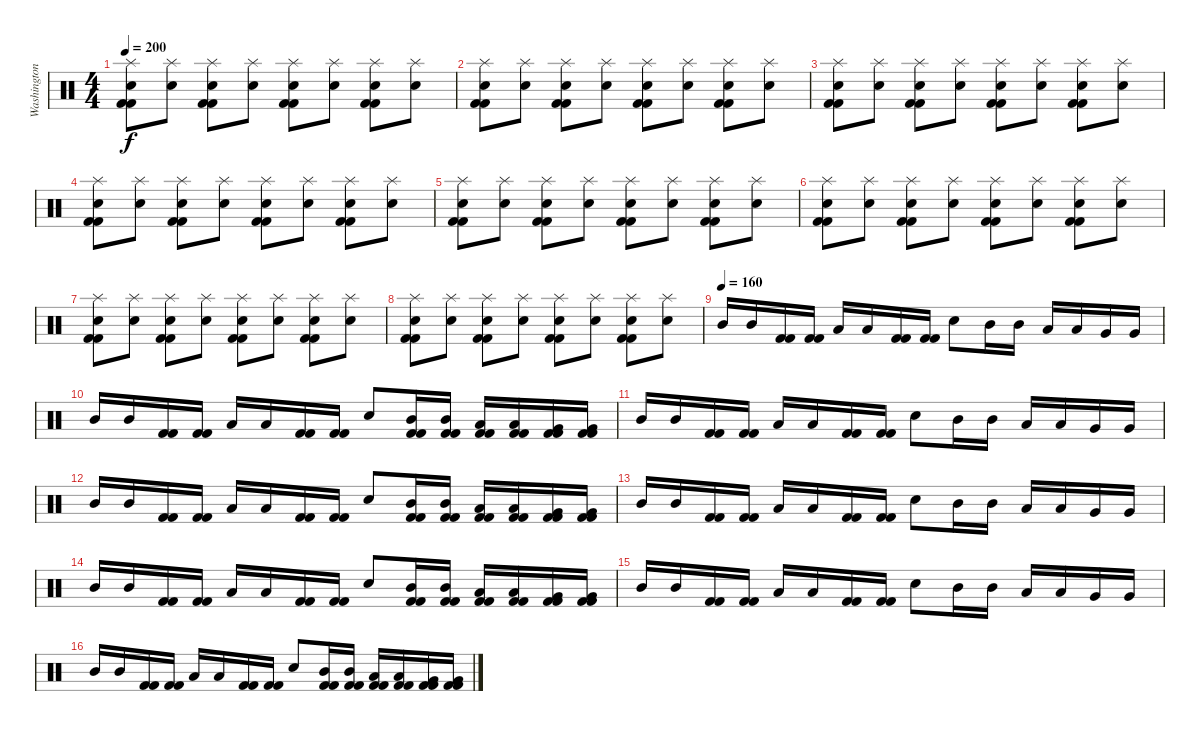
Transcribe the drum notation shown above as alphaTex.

\track ("Washington" "Washington") {instrument percussion}
\staff {score}
\articulation defaults
\ts (4 4)
\tempo 200
\clef neutral
\ks c
("Splash (hit)" "Electric Snare (hit)" "Kick (hit) 2" "Kick (hit) 2").8{dy f} ("Splash (hit)" "Electric Snare (hit)").8 ("Splash (hit)" "Electric Snare (hit)" "Kick (hit) 2" "Kick (hit) 2").8 ("Splash (hit)" "Electric Snare (hit)").8 ("Splash (hit)" "Electric Snare (hit)" "Kick (hit) 2" "Kick (hit) 2").8 ("Splash (hit)" "Electric Snare (hit)").8 ("Splash (hit)" "Electric Snare (hit)" "Kick (hit) 2" "Kick (hit) 2").8 ("Splash (hit)" "Electric Snare (hit)").8 |
("Splash (hit)" "Electric Snare (hit)" "Kick (hit) 2" "Kick (hit) 2").8 ("Splash (hit)" "Electric Snare (hit)").8 ("Splash (hit)" "Electric Snare (hit)" "Kick (hit) 2" "Kick (hit) 2").8 ("Splash (hit)" "Electric Snare (hit)").8 ("Splash (hit)" "Electric Snare (hit)" "Kick (hit) 2" "Kick (hit) 2").8 ("Splash (hit)" "Electric Snare (hit)").8 ("Splash (hit)" "Electric Snare (hit)" "Kick (hit) 2" "Kick (hit) 2").8 ("Splash (hit)" "Electric Snare (hit)").8 |
("Splash (hit)" "Electric Snare (hit)" "Kick (hit) 2" "Kick (hit) 2").8 ("Splash (hit)" "Electric Snare (hit)").8 ("Splash (hit)" "Electric Snare (hit)" "Kick (hit) 2" "Kick (hit) 2").8 ("Splash (hit)" "Electric Snare (hit)").8 ("Splash (hit)" "Electric Snare (hit)" "Kick (hit) 2" "Kick (hit) 2").8 ("Splash (hit)" "Electric Snare (hit)").8 ("Splash (hit)" "Electric Snare (hit)" "Kick (hit) 2" "Kick (hit) 2").8 ("Splash (hit)" "Electric Snare (hit)").8 |
("Splash (hit)" "Electric Snare (hit)" "Kick (hit) 2" "Kick (hit) 2").8 ("Splash (hit)" "Electric Snare (hit)").8 ("Splash (hit)" "Electric Snare (hit)" "Kick (hit) 2" "Kick (hit) 2").8 ("Splash (hit)" "Electric Snare (hit)").8 ("Splash (hit)" "Electric Snare (hit)" "Kick (hit) 2" "Kick (hit) 2").8 ("Splash (hit)" "Electric Snare (hit)").8 ("Splash (hit)" "Electric Snare (hit)" "Kick (hit) 2" "Kick (hit) 2").8 ("Splash (hit)" "Electric Snare (hit)").8 |
("Splash (hit)" "Electric Snare (hit)" "Kick (hit) 2" "Kick (hit) 2").8 ("Splash (hit)" "Electric Snare (hit)").8 ("Splash (hit)" "Electric Snare (hit)" "Kick (hit) 2" "Kick (hit) 2").8 ("Splash (hit)" "Electric Snare (hit)").8 ("Splash (hit)" "Electric Snare (hit)" "Kick (hit) 2" "Kick (hit) 2").8 ("Splash (hit)" "Electric Snare (hit)").8 ("Splash (hit)" "Electric Snare (hit)" "Kick (hit) 2" "Kick (hit) 2").8 ("Splash (hit)" "Electric Snare (hit)").8 |
("Splash (hit)" "Electric Snare (hit)" "Kick (hit) 2" "Kick (hit) 2").8 ("Splash (hit)" "Electric Snare (hit)").8 ("Splash (hit)" "Electric Snare (hit)" "Kick (hit) 2" "Kick (hit) 2").8 ("Splash (hit)" "Electric Snare (hit)").8 ("Splash (hit)" "Electric Snare (hit)" "Kick (hit) 2" "Kick (hit) 2").8 ("Splash (hit)" "Electric Snare (hit)").8 ("Splash (hit)" "Electric Snare (hit)" "Kick (hit) 2" "Kick (hit) 2").8 ("Splash (hit)" "Electric Snare (hit)").8 |
("Splash (hit)" "Electric Snare (hit)" "Kick (hit) 2" "Kick (hit) 2").8 ("Splash (hit)" "Electric Snare (hit)").8 ("Splash (hit)" "Electric Snare (hit)" "Kick (hit) 2" "Kick (hit) 2").8 ("Splash (hit)" "Electric Snare (hit)").8 ("Splash (hit)" "Electric Snare (hit)" "Kick (hit) 2" "Kick (hit) 2").8 ("Splash (hit)" "Electric Snare (hit)").8 ("Splash (hit)" "Electric Snare (hit)" "Kick (hit) 2" "Kick (hit) 2").8 ("Splash (hit)" "Electric Snare (hit)").8 |
("Splash (hit)" "Electric Snare (hit)" "Kick (hit) 2" "Kick (hit) 2").8 ("Splash (hit)" "Electric Snare (hit)").8 ("Splash (hit)" "Electric Snare (hit)" "Kick (hit) 2" "Kick (hit) 2").8 ("Splash (hit)" "Electric Snare (hit)").8 ("Splash (hit)" "Electric Snare (hit)" "Kick (hit) 2" "Kick (hit) 2").8 ("Splash (hit)" "Electric Snare (hit)").8 ("Splash (hit)" "Electric Snare (hit)" "Kick (hit) 2" "Kick (hit) 2").8 ("Splash (hit)" "Electric Snare (hit)").8 |
\tempo (160)
"Mid Tom (hit)".16 "Mid Tom (hit)".16 ("Kick (hit) 2" "Kick (hit) 2").16 ("Kick (hit) 2" "Kick (hit) 2").16 "Low Tom (hit)".16 "Low Tom (hit)".16 ("Kick (hit) 2" "Kick (hit) 2").16 ("Kick (hit) 2" "Kick (hit) 2").16 "Electric Snare (hit)".8 "Mid Tom (hit)".16 "Mid Tom (hit)".16 "Low Tom (hit)".16 "Low Tom (hit)".16 "Very Low Tom (hit)".16 "Very Low Tom (hit)".16 |
"Mid Tom (hit)".16 "Mid Tom (hit)".16 ("Kick (hit) 2" "Kick (hit) 2").16 ("Kick (hit) 2" "Kick (hit) 2").16 "Low Tom (hit)".16 "Low Tom (hit)".16 ("Kick (hit) 2" "Kick (hit) 2").16 ("Kick (hit) 2" "Kick (hit) 2").16 "Electric Snare (hit)".8 ("Mid Tom (hit)" "Kick (hit) 2" "Kick (hit) 2").16 ("Mid Tom (hit)" "Kick (hit) 2" "Kick (hit) 2").16 ("Low Tom (hit)" "Kick (hit) 2" "Kick (hit) 2").16 ("Low Tom (hit)" "Kick (hit) 2" "Kick (hit) 2").16 ("Very Low Tom (hit)" "Kick (hit) 2" "Kick (hit) 2").16 ("Very Low Tom (hit)" "Kick (hit) 2" "Kick (hit) 2").16 |
"Mid Tom (hit)".16 "Mid Tom (hit)".16 ("Kick (hit) 2" "Kick (hit) 2").16 ("Kick (hit) 2" "Kick (hit) 2").16 "Low Tom (hit)".16 "Low Tom (hit)".16 ("Kick (hit) 2" "Kick (hit) 2").16 ("Kick (hit) 2" "Kick (hit) 2").16 "Electric Snare (hit)".8 "Mid Tom (hit)".16 "Mid Tom (hit)".16 "Low Tom (hit)".16 "Low Tom (hit)".16 "Very Low Tom (hit)".16 "Very Low Tom (hit)".16 |
"Mid Tom (hit)".16 "Mid Tom (hit)".16 ("Kick (hit) 2" "Kick (hit) 2").16 ("Kick (hit) 2" "Kick (hit) 2").16 "Low Tom (hit)".16 "Low Tom (hit)".16 ("Kick (hit) 2" "Kick (hit) 2").16 ("Kick (hit) 2" "Kick (hit) 2").16 "Electric Snare (hit)".8 ("Mid Tom (hit)" "Kick (hit) 2" "Kick (hit) 2").16 ("Mid Tom (hit)" "Kick (hit) 2" "Kick (hit) 2").16 ("Low Tom (hit)" "Kick (hit) 2" "Kick (hit) 2").16 ("Low Tom (hit)" "Kick (hit) 2" "Kick (hit) 2").16 ("Very Low Tom (hit)" "Kick (hit) 2" "Kick (hit) 2").16 ("Very Low Tom (hit)" "Kick (hit) 2" "Kick (hit) 2").16 |
"Mid Tom (hit)".16 "Mid Tom (hit)".16 ("Kick (hit) 2" "Kick (hit) 2").16 ("Kick (hit) 2" "Kick (hit) 2").16 "Low Tom (hit)".16 "Low Tom (hit)".16 ("Kick (hit) 2" "Kick (hit) 2").16 ("Kick (hit) 2" "Kick (hit) 2").16 "Electric Snare (hit)".8 "Mid Tom (hit)".16 "Mid Tom (hit)".16 "Low Tom (hit)".16 "Low Tom (hit)".16 "Very Low Tom (hit)".16 "Very Low Tom (hit)".16 |
"Mid Tom (hit)".16 "Mid Tom (hit)".16 ("Kick (hit) 2" "Kick (hit) 2").16 ("Kick (hit) 2" "Kick (hit) 2").16 "Low Tom (hit)".16 "Low Tom (hit)".16 ("Kick (hit) 2" "Kick (hit) 2").16 ("Kick (hit) 2" "Kick (hit) 2").16 "Electric Snare (hit)".8 ("Mid Tom (hit)" "Kick (hit) 2" "Kick (hit) 2").16 ("Mid Tom (hit)" "Kick (hit) 2" "Kick (hit) 2").16 ("Low Tom (hit)" "Kick (hit) 2" "Kick (hit) 2").16 ("Low Tom (hit)" "Kick (hit) 2" "Kick (hit) 2").16 ("Very Low Tom (hit)" "Kick (hit) 2" "Kick (hit) 2").16 ("Very Low Tom (hit)" "Kick (hit) 2" "Kick (hit) 2").16 |
"Mid Tom (hit)".16 "Mid Tom (hit)".16 ("Kick (hit) 2" "Kick (hit) 2").16 ("Kick (hit) 2" "Kick (hit) 2").16 "Low Tom (hit)".16 "Low Tom (hit)".16 ("Kick (hit) 2" "Kick (hit) 2").16 ("Kick (hit) 2" "Kick (hit) 2").16 "Electric Snare (hit)".8 "Mid Tom (hit)".16 "Mid Tom (hit)".16 "Low Tom (hit)".16 "Low Tom (hit)".16 "Very Low Tom (hit)".16 "Very Low Tom (hit)".16 |
"Mid Tom (hit)".16 "Mid Tom (hit)".16 ("Kick (hit) 2" "Kick (hit) 2").16 ("Kick (hit) 2" "Kick (hit) 2").16 "Low Tom (hit)".16 "Low Tom (hit)".16 ("Kick (hit) 2" "Kick (hit) 2").16 ("Kick (hit) 2" "Kick (hit) 2").16 "Electric Snare (hit)".8 ("Mid Tom (hit)" "Kick (hit) 2" "Kick (hit) 2").16 ("Mid Tom (hit)" "Kick (hit) 2" "Kick (hit) 2").16 ("Low Tom (hit)" "Kick (hit) 2" "Kick (hit) 2").16 ("Low Tom (hit)" "Kick (hit) 2" "Kick (hit) 2").16 ("Very Low Tom (hit)" "Kick (hit) 2" "Kick (hit) 2").16 ("Very Low Tom (hit)" "Kick (hit) 2" "Kick (hit) 2").16
